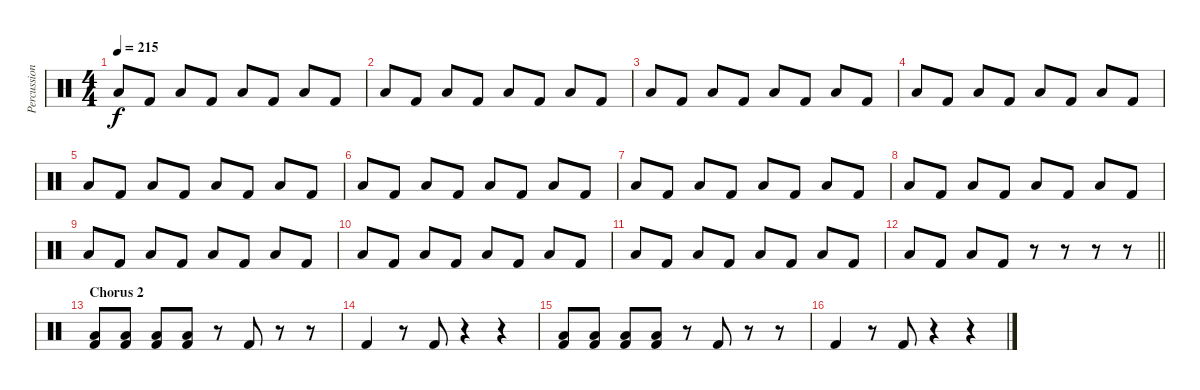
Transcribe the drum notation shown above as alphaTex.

\track ("Percussion" "Percussion") {instrument percussion}
\staff {score}
\articulation defaults
\ts (4 4)
\tempo 215
\clef neutral
\ks c "Low Floor Tom (hit)".8{dy f} "Kick (hit) 2".8 "Low Floor Tom (hit)".8 "Kick (hit) 2".8 "Low Floor Tom (hit)".8 "Kick (hit) 2".8 "Low Floor Tom (hit)".8 "Kick (hit) 2".8
|
"Low Floor Tom (hit)".8 "Kick (hit) 2".8 "Low Floor Tom (hit)".8 "Kick (hit) 2".8 "Low Floor Tom (hit)".8 "Kick (hit) 2".8 "Low Floor Tom (hit)".8 "Kick (hit) 2".8 |
"Low Floor Tom (hit)".8 "Kick (hit) 2".8 "Low Floor Tom (hit)".8 "Kick (hit) 2".8 "Low Floor Tom (hit)".8 "Kick (hit) 2".8 "Low Floor Tom (hit)".8 "Kick (hit) 2".8 |
"Low Floor Tom (hit)".8 "Kick (hit) 2".8 "Low Floor Tom (hit)".8 "Kick (hit) 2".8 "Low Floor Tom (hit)".8 "Kick (hit) 2".8 "Low Floor Tom (hit)".8 "Kick (hit) 2".8 |
"Low Floor Tom (hit)".8 "Kick (hit) 2".8 "Low Floor Tom (hit)".8 "Kick (hit) 2".8 "Low Floor Tom (hit)".8 "Kick (hit) 2".8 "Low Floor Tom (hit)".8 "Kick (hit) 2".8 |
"Low Floor Tom (hit)".8 "Kick (hit) 2".8 "Low Floor Tom (hit)".8 "Kick (hit) 2".8 "Low Floor Tom (hit)".8 "Kick (hit) 2".8 "Low Floor Tom (hit)".8 "Kick (hit) 2".8 |
"Low Floor Tom (hit)".8 "Kick (hit) 2".8 "Low Floor Tom (hit)".8 "Kick (hit) 2".8 "Low Floor Tom (hit)".8 "Kick (hit) 2".8 "Low Floor Tom (hit)".8 "Kick (hit) 2".8 |
"Low Floor Tom (hit)".8 "Kick (hit) 2".8 "Low Floor Tom (hit)".8 "Kick (hit) 2".8 "Low Floor Tom (hit)".8 "Kick (hit) 2".8 "Low Floor Tom (hit)".8 "Kick (hit) 2".8 |
"Low Floor Tom (hit)".8 "Kick (hit) 2".8 "Low Floor Tom (hit)".8 "Kick (hit) 2".8 "Low Floor Tom (hit)".8 "Kick (hit) 2".8 "Low Floor Tom (hit)".8 "Kick (hit) 2".8 |
"Low Floor Tom (hit)".8 "Kick (hit) 2".8 "Low Floor Tom (hit)".8 "Kick (hit) 2".8 "Low Floor Tom (hit)".8 "Kick (hit) 2".8 "Low Floor Tom (hit)".8 "Kick (hit) 2".8 |
"Low Floor Tom (hit)".8 "Kick (hit) 2".8 "Low Floor Tom (hit)".8 "Kick (hit) 2".8 "Low Floor Tom (hit)".8 "Kick (hit) 2".8 "Low Floor Tom (hit)".8 "Kick (hit) 2".8 |
\barLineRight lightlight "Low Floor Tom (hit)".8 "Kick (hit) 2".8 "Low Floor Tom (hit)".8 "Kick (hit) 2".8
r.8 r.8 r.8 r.8 |
\section ("" "Chorus 2")
("Low Floor Tom (hit)" "Kick (hit) 2").8 ("Low Floor Tom (hit)" "Kick (hit) 2").8 ("Low Floor Tom (hit)" "Kick (hit) 2").8 ("Low Floor Tom (hit)" "Kick (hit) 2").8 r.8 "Kick (hit) 2".8 r.8 r.8 |
"Kick (hit) 2".4 r.8 "Kick (hit) 2".8 r.4 r.4 |
("Low Floor Tom (hit)" "Kick (hit) 2").8 ("Low Floor Tom (hit)" "Kick (hit) 2").8 ("Low Floor Tom (hit)" "Kick (hit) 2").8 ("Low Floor Tom (hit)" "Kick (hit) 2").8 r.8 "Kick (hit) 2".8 r.8 r.8 |
"Kick (hit) 2".4 r.8 "Kick (hit) 2".8 r.4 r.4
